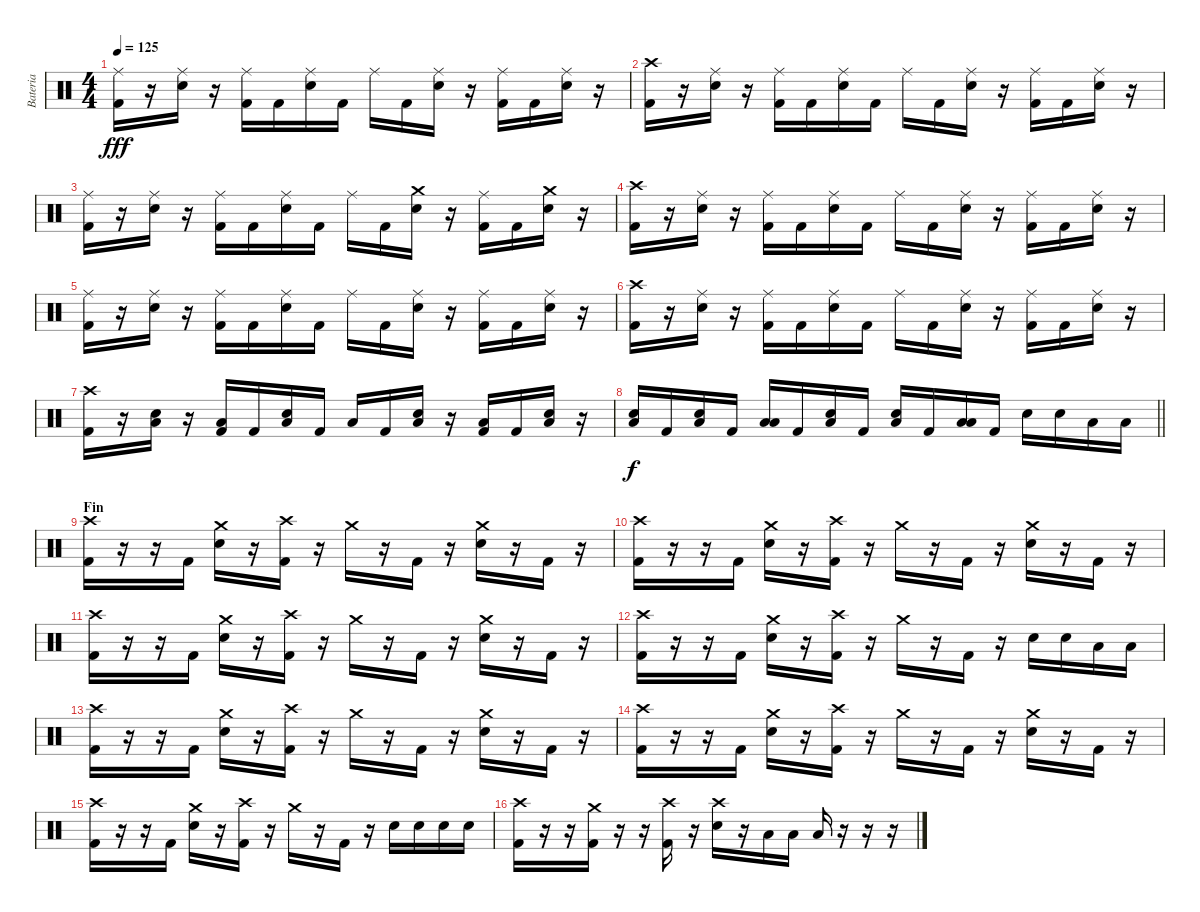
\track ("Bateria" "Bateria") {instrument percussion}
\staff {score}
\articulation defaults
\ts (4 4)
\tempo 125
\clef neutral
\ks c
("Ride (middle)" "Kick (hit) 2").16{dy fff} r.16 ("Ride (middle)" "Electric Snare (hit)").16 r.16 ("Ride (middle)" "Kick (hit) 2").16 "Kick (hit) 2".16 ("Ride (middle)" "Electric Snare (hit)").16 "Kick (hit) 2".16 "Ride (middle)".16 "Kick (hit) 2".16 ("Ride (middle)" "Electric Snare (hit)").16 r.16 ("Ride (middle)" "Kick (hit) 2").16 "Kick (hit) 2".16 ("Ride (middle)" "Electric Snare (hit)").16 r.16 |
("Crash high (hit)" "Kick (hit) 2").16 r.16 ("Ride (middle)" "Electric Snare (hit)").16 r.16 ("Ride (middle)" "Kick (hit) 2").16 "Kick (hit) 2".16 ("Ride (middle)" "Electric Snare (hit)").16 "Kick (hit) 2".16 "Ride (middle)".16 "Kick (hit) 2".16 ("Ride (middle)" "Electric Snare (hit)").16 r.16 ("Ride (middle)" "Kick (hit) 2").16 "Kick (hit) 2".16 ("Ride (middle)" "Electric Snare (hit)").16 r.16 |
("Ride (middle)" "Kick (hit) 2").16 r.16 ("Ride (middle)" "Electric Snare (hit)").16 r.16 ("Ride (middle)" "Kick (hit) 2").16 "Kick (hit) 2".16 ("Ride (middle)" "Electric Snare (hit)").16 "Kick (hit) 2".16 "Ride (middle)".16 "Kick (hit) 2".16 ("Crash medium (hit)" "Electric Snare (hit)").16 r.16 ("Ride (middle)" "Kick (hit) 2").16 "Kick (hit) 2".16 ("Crash medium (hit)" "Electric Snare (hit)").16 r.16 |
("Crash high (hit)" "Kick (hit) 2").16 r.16 ("Ride (middle)" "Electric Snare (hit)").16 r.16 ("Ride (middle)" "Kick (hit) 2").16 "Kick (hit) 2".16 ("Ride (middle)" "Electric Snare (hit)").16 "Kick (hit) 2".16 "Ride (middle)".16 "Kick (hit) 2".16 ("Ride (middle)" "Electric Snare (hit)").16 r.16 ("Ride (middle)" "Kick (hit) 2").16 "Kick (hit) 2".16 ("Ride (middle)" "Electric Snare (hit)").16 r.16 |
("Ride (middle)" "Kick (hit) 2").16 r.16 ("Ride (middle)" "Electric Snare (hit)").16 r.16 ("Ride (middle)" "Kick (hit) 2").16 "Kick (hit) 2".16 ("Ride (middle)" "Electric Snare (hit)").16 "Kick (hit) 2".16 "Ride (middle)".16 "Kick (hit) 2".16 ("Ride (middle)" "Electric Snare (hit)").16 r.16 ("Ride (middle)" "Kick (hit) 2").16 "Kick (hit) 2".16 ("Ride (middle)" "Electric Snare (hit)").16 r.16 |
("Crash high (hit)" "Kick (hit) 2").16 r.16 ("Ride (middle)" "Electric Snare (hit)").16 r.16 ("Ride (middle)" "Kick (hit) 2").16 "Kick (hit) 2".16 ("Ride (middle)" "Electric Snare (hit)").16 "Kick (hit) 2".16 "Ride (middle)".16 "Kick (hit) 2".16 ("Ride (middle)" "Electric Snare (hit)").16 r.16 ("Ride (middle)" "Kick (hit) 2").16 "Kick (hit) 2".16 ("Ride (middle)" "Electric Snare (hit)").16 r.16 |
("Crash high (hit)" "Kick (hit) 2").16 r.16 ("Low Floor Tom (hit)" "Electric Snare (hit)").16 r.16 ("Low Floor Tom (hit)" "Kick (hit) 2").16 "Kick (hit) 2".16 ("Low Floor Tom (hit)" "Electric Snare (hit)").16 "Kick (hit) 2".16 "Low Floor Tom (hit)".16 "Kick (hit) 2".16 ("Low Floor Tom (hit)" "Electric Snare (hit)").16 r.16 ("Low Floor Tom (hit)" "Kick (hit) 2").16 "Kick (hit) 2".16 ("Low Floor Tom (hit)" "Electric Snare (hit)").16 r.16 |
\barLineRight lightlight
("Low Floor Tom (hit)" "Electric Snare (hit)").16{dy f} "Kick (hit) 2".16 ("Low Floor Tom (hit)" "Electric Snare (hit)").16 "Kick (hit) 2".16 ("Low Tom (hit)" "Low Floor Tom (hit)").16 "Kick (hit) 2".16 ("Low Floor Tom (hit)" "Electric Snare (hit)").16 "Kick (hit) 2".16 ("Low Floor Tom (hit)" "Electric Snare (hit)").16 "Kick (hit) 2".16 ("Low Tom (hit)" "Low Floor Tom (hit)").16 "Kick (hit) 2".16 "Electric Snare (hit)".16 "Electric Snare (hit)".16 "Low Tom (hit)".16 "Low Tom (hit)".16 |
\section ("" "Fin")
("Crash high (hit)" "Kick (hit) 2").16 r.16 r.16 "Kick (hit) 2".16 ("Crash medium (hit)" "Electric Snare (hit)").16 r.16 ("Crash high (hit)" "Kick (hit) 2").16 r.16 "Crash medium (hit)".16 r.16 "Kick (hit) 2".16 r.16 ("Crash medium (hit)" "Electric Snare (hit)").16 r.16 "Kick (hit) 2".16 r.16 |
("Crash high (hit)" "Kick (hit) 2").16 r.16 r.16 "Kick (hit) 2".16 ("Crash medium (hit)" "Electric Snare (hit)").16 r.16 ("Crash high (hit)" "Kick (hit) 2").16 r.16 "Crash medium (hit)".16 r.16 "Kick (hit) 2".16 r.16 ("Crash medium (hit)" "Electric Snare (hit)").16 r.16 "Kick (hit) 2".16 r.16 |
("Crash high (hit)" "Kick (hit) 2").16 r.16 r.16 "Kick (hit) 2".16 ("Crash medium (hit)" "Electric Snare (hit)").16 r.16 ("Crash high (hit)" "Kick (hit) 2").16 r.16 "Crash medium (hit)".16 r.16 "Kick (hit) 2".16 r.16 ("Crash medium (hit)" "Electric Snare (hit)").16 r.16 "Kick (hit) 2".16 r.16 |
("Crash high (hit)" "Kick (hit) 2").16 r.16 r.16 "Kick (hit) 2".16 ("Crash medium (hit)" "Electric Snare (hit)").16 r.16 ("Crash high (hit)" "Kick (hit) 2").16 r.16 "Crash medium (hit)".16 r.16 "Kick (hit) 2".16 r.16 "Electric Snare (hit)".16 "Electric Snare (hit)".16 "Low Tom (hit)".16 "Low Tom (hit)".16 |
("Crash high (hit)" "Kick (hit) 2").16 r.16 r.16 "Kick (hit) 2".16 ("Crash medium (hit)" "Electric Snare (hit)").16 r.16 ("Crash high (hit)" "Kick (hit) 2").16 r.16 "Crash medium (hit)".16 r.16 "Kick (hit) 2".16 r.16 ("Crash medium (hit)" "Electric Snare (hit)").16 r.16 "Kick (hit) 2".16 r.16 |
("Crash high (hit)" "Kick (hit) 2").16 r.16 r.16 "Kick (hit) 2".16 ("Crash medium (hit)" "Electric Snare (hit)").16 r.16 ("Crash high (hit)" "Kick (hit) 2").16 r.16 "Crash medium (hit)".16 r.16 "Kick (hit) 2".16 r.16 ("Crash medium (hit)" "Electric Snare (hit)").16 r.16 "Kick (hit) 2".16 r.16 |
("Crash high (hit)" "Kick (hit) 2").16 r.16 r.16 "Kick (hit) 2".16 ("Crash medium (hit)" "Electric Snare (hit)").16 r.16 ("Crash high (hit)" "Kick (hit) 2").16 r.16 "Crash medium (hit)".16 r.16 "Kick (hit) 2".16 r.16 "Electric Snare (hit)".16 "Electric Snare (hit)".16 "Electric Snare (hit)".16 "Electric Snare (hit)".16 |
("Crash high (hit)" "Kick (hit) 2").16 r.16 r.16 ("Crash medium (hit)" "Kick (hit) 2").16 r.16 r.16 ("Crash high (hit)" "Kick (hit) 2").16 r.16 ("Crash high (hit)" "Electric Snare (hit)").16 r.16 "Low Floor Tom (hit)".16 "Low Floor Tom (hit)".16 "Low Floor Tom (hit)".16 r.16 r.16 r.16
